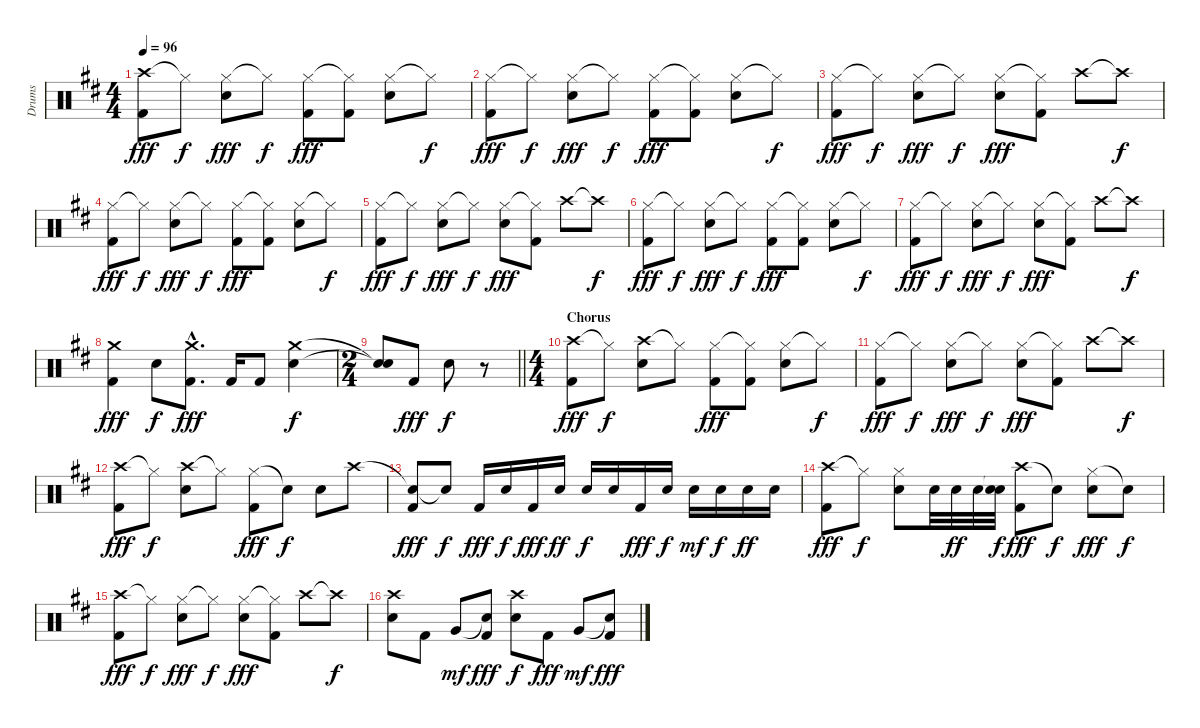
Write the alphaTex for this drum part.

\track ("Drums" "Drums") {instrument percussion}
\staff {score}
\articulation defaults
\ts (4 4)
\tempo 96
\clef neutral
\ks d
("Crash high (hit)" "Kick (hit) 2").8{dy fff} "Hi-Hat (closed)"{t}.8{dy f} ("Hi-Hat (closed)" "Snare (hit) 2").8{dy fff} "Hi-Hat (closed)"{t}.8{dy f} ("Hi-Hat (closed)" "Kick (hit) 2").8{dy fff} ("Hi-Hat (closed)"{t} "Kick (hit) 2").8 ("Hi-Hat (closed)" "Snare (hit) 2").8 "Hi-Hat (closed)"{t}.8{dy f} |
("Hi-Hat (closed)" "Kick (hit) 2").8{dy fff} "Hi-Hat (closed)"{t}.8{dy f} ("Hi-Hat (closed)" "Snare (hit) 2").8{dy fff} "Hi-Hat (closed)"{t}.8{dy f} ("Hi-Hat (closed)" "Kick (hit) 2").8{dy fff} ("Hi-Hat (closed)"{t} "Kick (hit) 2").8 ("Hi-Hat (closed)" "Snare (hit) 2").8 "Hi-Hat (closed)"{t}.8{dy f} |
("Hi-Hat (closed)" "Kick (hit) 2").8{dy fff} "Hi-Hat (closed)"{t}.8{dy f} ("Hi-Hat (closed)" "Snare (hit) 2").8{dy fff} "Hi-Hat (closed)"{t}.8{dy f} ("Hi-Hat (closed)" "Snare (hit) 2").8{dy fff} ("Hi-Hat (closed)"{t} "Kick (hit) 2").8 "Crash high (hit)".8 "Crash high (hit)"{t}.8{dy f} |
("Hi-Hat (closed)" "Kick (hit) 2").8{dy fff} "Hi-Hat (closed)"{t}.8{dy f} ("Hi-Hat (closed)" "Snare (hit) 2").8{dy fff} "Hi-Hat (closed)"{t}.8{dy f} ("Hi-Hat (closed)" "Kick (hit) 2").8{dy fff} ("Hi-Hat (closed)"{t} "Kick (hit) 2").8 ("Hi-Hat (closed)" "Snare (hit) 2").8 "Hi-Hat (closed)"{t}.8{dy f} |
("Hi-Hat (closed)" "Kick (hit) 2").8{dy fff} "Hi-Hat (closed)"{t}.8{dy f} ("Hi-Hat (closed)" "Snare (hit) 2").8{dy fff} "Hi-Hat (closed)"{t}.8{dy f} ("Hi-Hat (closed)" "Snare (hit) 2").8{dy fff} ("Hi-Hat (closed)"{t} "Kick (hit) 2").8 "Crash high (hit)".8 "Crash high (hit)"{t}.8{dy f} |
("Hi-Hat (closed)" "Kick (hit) 2").8{dy fff} "Hi-Hat (closed)"{t}.8{dy f} ("Hi-Hat (closed)" "Snare (hit) 2").8{dy fff} "Hi-Hat (closed)"{t}.8{dy f} ("Hi-Hat (closed)" "Kick (hit) 2").8{dy fff} ("Hi-Hat (closed)"{t} "Kick (hit) 2").8 ("Hi-Hat (closed)" "Snare (hit) 2").8 "Hi-Hat (closed)"{t}.8{dy f} |
("Hi-Hat (closed)" "Kick (hit) 2").8{dy fff} "Hi-Hat (closed)"{t}.8{dy f} ("Hi-Hat (closed)" "Snare (hit) 2").8{dy fff} "Hi-Hat (closed)"{t}.8{dy f} ("Hi-Hat (closed)" "Snare (hit) 2").8{dy fff} ("Hi-Hat (closed)"{t} "Kick (hit) 2").8 "Crash high (hit)".8 "Crash high (hit)"{t}.8{dy f} |
("Crash medium (hit)" "Kick (hit) 2").4{dy fff} "Snare (hit) 2".8{dy f} ("Crash medium (hit)"{hac} "Kick (hit) 2"{hac}).8{d dy fff} "Kick (hit) 2".16 "Kick (hit) 2".8 ("Crash medium (hit)" "Snare (hit) 2").4{dy f} |
\ts (2 4)
\barLineRight lightlight
("Snare (hit)"{t} "Snare (hit)"{t}).8 "Kick (hit) 2".8{dy fff} "Snare (hit) 2".8{dy f} r.8 |
\ts (4 4)
\section ("" "Chorus")
("Crash high (hit)" "Kick (hit) 2").8{dy fff} "Hi-Hat (closed)"{t}.8{dy f} ("Crash high (hit)" "Snare (hit) 2").8 "Hi-Hat (closed)"{t}.8 ("Hi-Hat (closed)" "Kick (hit) 2").8{dy fff} ("Hi-Hat (closed)"{t} "Kick (hit) 2").8 ("Hi-Hat (closed)" "Snare (hit) 2").8 "Hi-Hat (closed)"{t}.8{dy f} |
("Hi-Hat (closed)" "Kick (hit) 2").8{dy fff} "Hi-Hat (closed)"{t}.8{dy f} ("Hi-Hat (closed)" "Snare (hit) 2").8{dy fff} "Hi-Hat (closed)"{t}.8{dy f} ("Hi-Hat (closed)" "Snare (hit) 2").8{dy fff} ("Hi-Hat (closed)"{t} "Kick (hit) 2").8 "Crash high (hit)".8 "Crash high (hit)"{t}.8{dy f} |
("Crash high (hit)" "Kick (hit) 2").8{dy fff} "Hi-Hat (closed)"{t}.8{dy f} ("Crash high (hit)" "Snare (hit) 2").8 "Hi-Hat (closed)"{t}.8 ("Hi-Hat (closed)" "Kick (hit) 2").8{dy fff} "Snare (hit)"{t}.8{dy f} "Snare (hit) 2".8 "Crash high (hit)".8 |
("Snare (hit)"{t} "Kick (hit) 2").8{dy fff} "Snare (hit)"{t}.8{dy f} "Kick (hit) 2".16{dy fff} "Snare (hit) 2".16{dy f} "Kick (hit) 2".16{dy fff} "Snare (hit) 2".16{dy ff} "Snare (hit) 2".16{dy f} "Snare (hit) 2".16 "Kick (hit) 2".16{dy fff} "Snare (hit) 2".16{dy f} "Snare (hit) 2".16{dy mf} "Snare (hit) 2".16{dy f} "Snare (hit) 2".16{dy ff} "Snare (hit) 2".16 |
("Crash high (hit)" "Kick (hit) 2").8{dy fff} "Hi-Hat (closed)"{t}.8{dy f} ("Hi-Hat (closed)" "Snare (hit) 2").8 "Snare (hit) 2".32 "Snare (hit) 2".32{dy ff} "Snare (hit) 2".32 ("Snare (hit)"{t} "Snare (hit) 2").32{dy f} ("Crash high (hit)" "Kick (hit) 2").8{dy fff} "Snare (hit)"{t}.8{dy f} ("Hi-Hat (closed)" "Snare (hit) 2").8{dy fff} "Snare (hit)"{t}.8{dy f} |
("Crash high (hit)" "Kick (hit) 2").8{dy fff} "Hi-Hat (closed)"{t}.8{dy f} ("Hi-Hat (closed)" "Snare (hit) 2").8{dy fff} "Hi-Hat (closed)"{t}.8{dy f} ("Hi-Hat (closed)" "Snare (hit) 2").8{dy fff} ("Hi-Hat (closed)"{t} "Kick (hit) 2").8 "Crash high (hit)".8 "Crash high (hit)"{t}.8{dy f} |
("Crash high (hit)" "Snare (hit) 2").8 "Kick (hit) 2".8 "Very Low Tom (hit)".8{dy mf} ("Snare (hit)"{t} "Kick (hit) 2").8{dy fff} ("Crash high (hit)" "Snare (hit) 2").8{dy f} "Kick (hit) 2".8{dy fff} "Very Low Tom (hit)".8{dy mf} ("Snare (hit)"{t} "Kick (hit) 2").8{dy fff}
